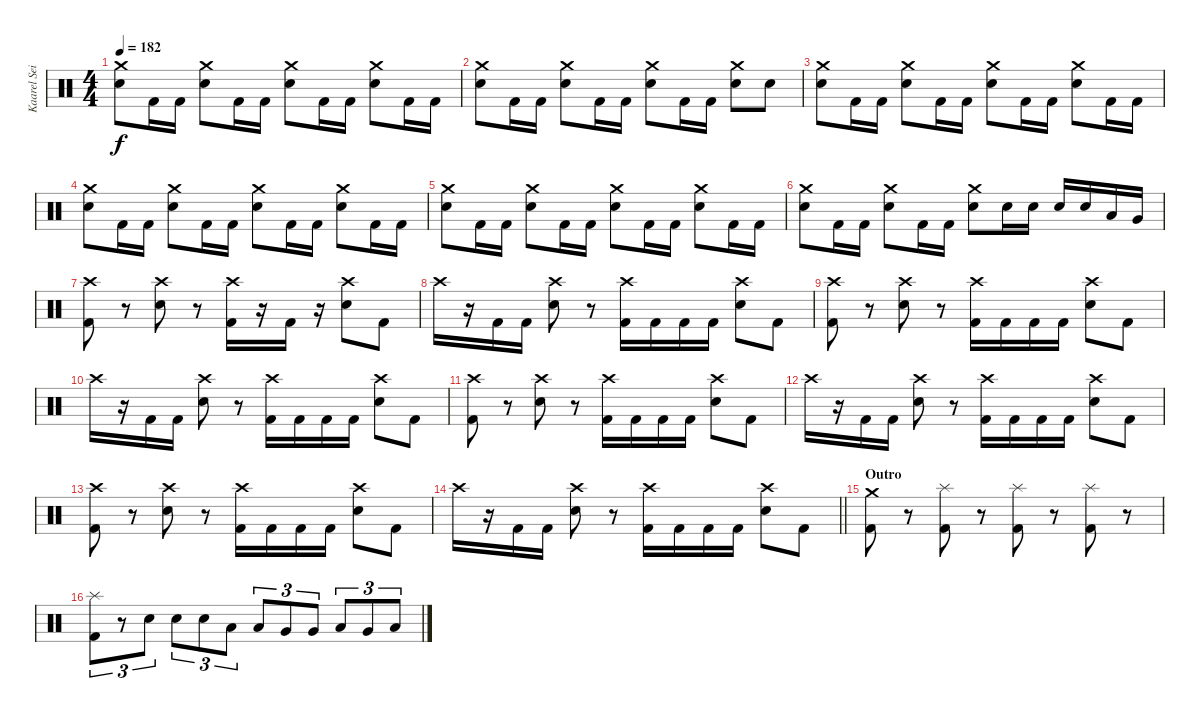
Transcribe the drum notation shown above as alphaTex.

\track ("Kaarel Sein" "Kaarel Sei") {instrument percussion}
\staff {score}
\articulation defaults
\ts (4 4)
\tempo 182
\clef neutral
\ks c
("Crash medium (hit)" "Electric Snare (hit)").8{dy f} "Kick (hit) 2".16 "Kick (hit) 2".16 ("Crash medium (hit)" "Electric Snare (hit)").8 "Kick (hit) 2".16 "Kick (hit) 2".16 ("Crash medium (hit)" "Electric Snare (hit)").8 "Kick (hit) 2".16 "Kick (hit) 2".16 ("Crash medium (hit)" "Electric Snare (hit)").8 "Kick (hit) 2".16 "Kick (hit) 2".16 |
("Crash medium (hit)" "Electric Snare (hit)").8 "Kick (hit) 2".16 "Kick (hit) 2".16 ("Crash medium (hit)" "Electric Snare (hit)").8 "Kick (hit) 2".16 "Kick (hit) 2".16 ("Crash medium (hit)" "Electric Snare (hit)").8 "Kick (hit) 2".16 "Kick (hit) 2".16 ("Crash medium (hit)" "Electric Snare (hit)").8 "Electric Snare (hit)".8 |
("Crash medium (hit)" "Electric Snare (hit)").8 "Kick (hit) 2".16 "Kick (hit) 2".16 ("Crash medium (hit)" "Electric Snare (hit)").8 "Kick (hit) 2".16 "Kick (hit) 2".16 ("Crash medium (hit)" "Electric Snare (hit)").8 "Kick (hit) 2".16 "Kick (hit) 2".16 ("Crash medium (hit)" "Electric Snare (hit)").8 "Kick (hit) 2".16 "Kick (hit) 2".16 |
("Crash medium (hit)" "Electric Snare (hit)").8 "Kick (hit) 2".16 "Kick (hit) 2".16 ("Crash medium (hit)" "Electric Snare (hit)").8 "Kick (hit) 2".16 "Kick (hit) 2".16 ("Crash medium (hit)" "Electric Snare (hit)").8 "Kick (hit) 2".16 "Kick (hit) 2".16 ("Crash medium (hit)" "Electric Snare (hit)").8 "Kick (hit) 2".16 "Kick (hit) 2".16 |
("Crash medium (hit)" "Electric Snare (hit)").8 "Kick (hit) 2".16 "Kick (hit) 2".16 ("Crash medium (hit)" "Electric Snare (hit)").8 "Kick (hit) 2".16 "Kick (hit) 2".16 ("Crash medium (hit)" "Electric Snare (hit)").8 "Kick (hit) 2".16 "Kick (hit) 2".16 ("Crash medium (hit)" "Electric Snare (hit)").8 "Kick (hit) 2".16 "Kick (hit) 2".16 |
("Crash medium (hit)" "Electric Snare (hit)").8 "Kick (hit) 2".16 "Kick (hit) 2".16 ("Crash medium (hit)" "Electric Snare (hit)").8 "Kick (hit) 2".16 "Kick (hit) 2".16 ("Crash medium (hit)" "Electric Snare (hit)").8 "Electric Snare (hit)".16 "Electric Snare (hit)".16 "Electric Snare (hit)".16 "Electric Snare (hit)".16 "Low Tom (hit)".16 "Very Low Tom (hit)".16 |
("Crash high (hit)" "Kick (hit) 2").8 r.8 ("Crash high (hit)" "Electric Snare (hit)").8 r.8 ("Crash high (hit)" "Kick (hit) 2").16 r.16 "Kick (hit) 2".16 r.16 ("Crash high (hit)" "Electric Snare (hit)").8 "Kick (hit) 2".8 |
"Crash high (hit)".16 r.16 "Kick (hit) 2".16 "Kick (hit) 2".16 ("Crash high (hit)" "Electric Snare (hit)").8 r.8 ("Crash high (hit)" "Kick (hit) 2").16 "Kick (hit) 2".16 "Kick (hit) 2".16 "Kick (hit) 2".16 ("Crash high (hit)" "Electric Snare (hit)").8 "Kick (hit) 2".8 |
("Crash high (hit)" "Kick (hit) 2").8 r.8 ("Crash high (hit)" "Electric Snare (hit)").8 r.8 ("Crash high (hit)" "Kick (hit) 2").16 "Kick (hit) 2".16 "Kick (hit) 2".16 "Kick (hit) 2".16 ("Crash high (hit)" "Electric Snare (hit)").8 "Kick (hit) 2".8 |
"Crash high (hit)".16 r.16 "Kick (hit) 2".16 "Kick (hit) 2".16 ("Crash high (hit)" "Electric Snare (hit)").8 r.8 ("Crash high (hit)" "Kick (hit) 2").16 "Kick (hit) 2".16 "Kick (hit) 2".16 "Kick (hit) 2".16 ("Crash high (hit)" "Electric Snare (hit)").8 "Kick (hit) 2".8 |
("Crash high (hit)" "Kick (hit) 2").8 r.8 ("Crash high (hit)" "Electric Snare (hit)").8 r.8 ("Crash high (hit)" "Kick (hit) 2").16 "Kick (hit) 2".16 "Kick (hit) 2".16 "Kick (hit) 2".16 ("Crash high (hit)" "Electric Snare (hit)").8 "Kick (hit) 2".8 |
"Crash high (hit)".16 r.16 "Kick (hit) 2".16 "Kick (hit) 2".16 ("Crash high (hit)" "Electric Snare (hit)").8 r.8 ("Crash high (hit)" "Kick (hit) 2").16 "Kick (hit) 2".16 "Kick (hit) 2".16 "Kick (hit) 2".16 ("Crash high (hit)" "Electric Snare (hit)").8 "Kick (hit) 2".8 |
("Crash high (hit)" "Kick (hit) 2").8 r.8 ("Crash high (hit)" "Electric Snare (hit)").8 r.8 ("Crash high (hit)" "Kick (hit) 2").16 "Kick (hit) 2".16 "Kick (hit) 2".16 "Kick (hit) 2".16 ("Crash high (hit)" "Electric Snare (hit)").8 "Kick (hit) 2".8 |
\barLineRight lightlight "Crash high (hit)".16
r.16 "Kick (hit) 2".16 "Kick (hit) 2".16 ("Crash high (hit)" "Electric Snare (hit)").8 r.8 ("Crash high (hit)" "Kick (hit) 2").16 "Kick (hit) 2".16 "Kick (hit) 2".16 "Kick (hit) 2".16 ("Crash high (hit)" "Electric Snare (hit)").8 "Kick (hit) 2".8 |
\section ("" "Outro")
("Crash medium (hit)" "Kick (hit) 2").8 r.8 ("Splash (hit)" "Kick (hit) 2").8 r.8 ("Splash (hit)" "Kick (hit) 2").8 r.8 ("Splash (hit)" "Kick (hit) 2").8 r.8 |
("Splash (hit)" "Kick (hit) 2").8{tu (3 2)} r.8{tu (3 2)} "Electric Snare (hit)".8{tu (3 2)} "Electric Snare (hit)".8{tu (3 2)} "Electric Snare (hit)".8{tu (3 2)} "Low Tom (hit)".8{tu (3 2)} "Low Tom (hit)".8{tu (3 2)} "Very Low Tom (hit)".8{tu (3 2)} "Very Low Tom (hit)".8{tu (3 2)} "Low Tom (hit)".8{tu (3 2)} "Very Low Tom (hit)".8{tu (3 2)} "Low Floor Tom (hit)".8{tu (3 2)}
